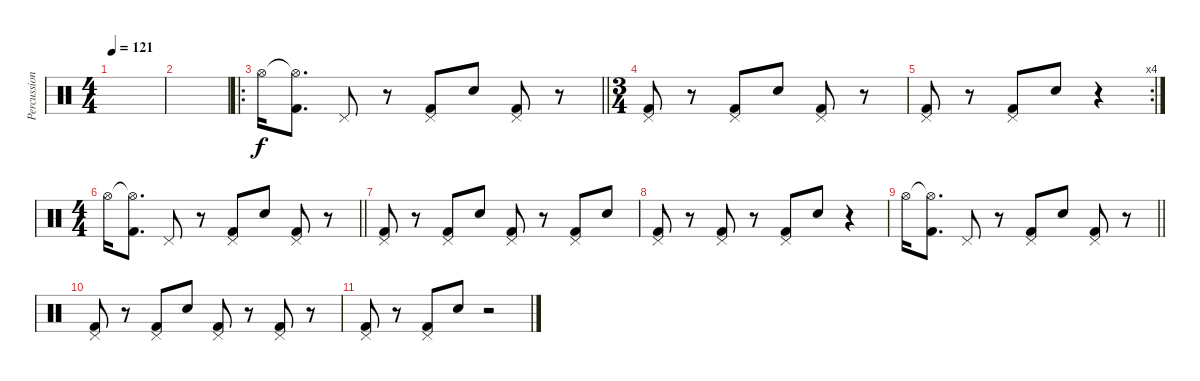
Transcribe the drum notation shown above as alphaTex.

\track ("Percussion" "Percussion") {instrument percussion}
\staff {score}
\articulation defaults
\ts (4 4)
\tempo 121
\clef neutral
\ks c
|
|
\ro
\barLineRight lightlight "Hi-Hat (open)".16
("Hi-Hat (open)"{t} "Kick (hit) 2").8{d} "Pedal Hi-Hat (hit)".8 r.8 ("Pedal Hi-Hat (hit)" "Kick (hit) 2").8 "Electric Snare (hit)".8 ("Pedal Hi-Hat (hit)" "Kick (hit) 2").8 r.8 |
\ts (3 4)
("Pedal Hi-Hat (hit)" "Kick (hit) 2").8 r.8 ("Pedal Hi-Hat (hit)" "Kick (hit) 2").8 "Electric Snare (hit)".8 ("Pedal Hi-Hat (hit)" "Kick (hit) 2").8 r.8 |
\rc 4
("Pedal Hi-Hat (hit)" "Kick (hit) 2").8 r.8 ("Pedal Hi-Hat (hit)" "Kick (hit) 2").8 "Electric Snare (hit)".8 r.4 |
\ts (4 4)
\barLineRight lightlight "Hi-Hat (open)".16
("Hi-Hat (open)"{t} "Kick (hit) 2").8{d} "Pedal Hi-Hat (hit)".8 r.8 ("Pedal Hi-Hat (hit)" "Kick (hit) 2").8 "Electric Snare (hit)".8 ("Pedal Hi-Hat (hit)" "Kick (hit) 2").8 r.8 |
("Pedal Hi-Hat (hit)" "Kick (hit) 2").8 r.8 ("Pedal Hi-Hat (hit)" "Kick (hit) 2").8 "Electric Snare (hit)".8 ("Pedal Hi-Hat (hit)" "Kick (hit) 2").8 r.8 ("Pedal Hi-Hat (hit)" "Kick (hit) 2").8 "Electric Snare (hit)".8 |
("Pedal Hi-Hat (hit)" "Kick (hit) 2").8 r.8 ("Pedal Hi-Hat (hit)" "Kick (hit) 2").8 r.8 ("Pedal Hi-Hat (hit)" "Kick (hit) 2").8 "Electric Snare (hit)".8 r.4 |
\barLineRight lightlight "Hi-Hat (open)".16
("Hi-Hat (open)"{t} "Kick (hit) 2").8{d} "Pedal Hi-Hat (hit)".8 r.8 ("Pedal Hi-Hat (hit)" "Kick (hit) 2").8 "Electric Snare (hit)".8 ("Pedal Hi-Hat (hit)" "Kick (hit) 2").8 r.8 |
("Pedal Hi-Hat (hit)" "Kick (hit) 2").8 r.8 ("Pedal Hi-Hat (hit)" "Kick (hit) 2").8 "Electric Snare (hit)".8 ("Pedal Hi-Hat (hit)" "Kick (hit) 2").8 r.8 ("Pedal Hi-Hat (hit)" "Kick (hit) 2").8 r.8 |
("Pedal Hi-Hat (hit)" "Kick (hit) 2").8 r.8 ("Pedal Hi-Hat (hit)" "Kick (hit) 2").8 "Electric Snare (hit)".8 r.2
